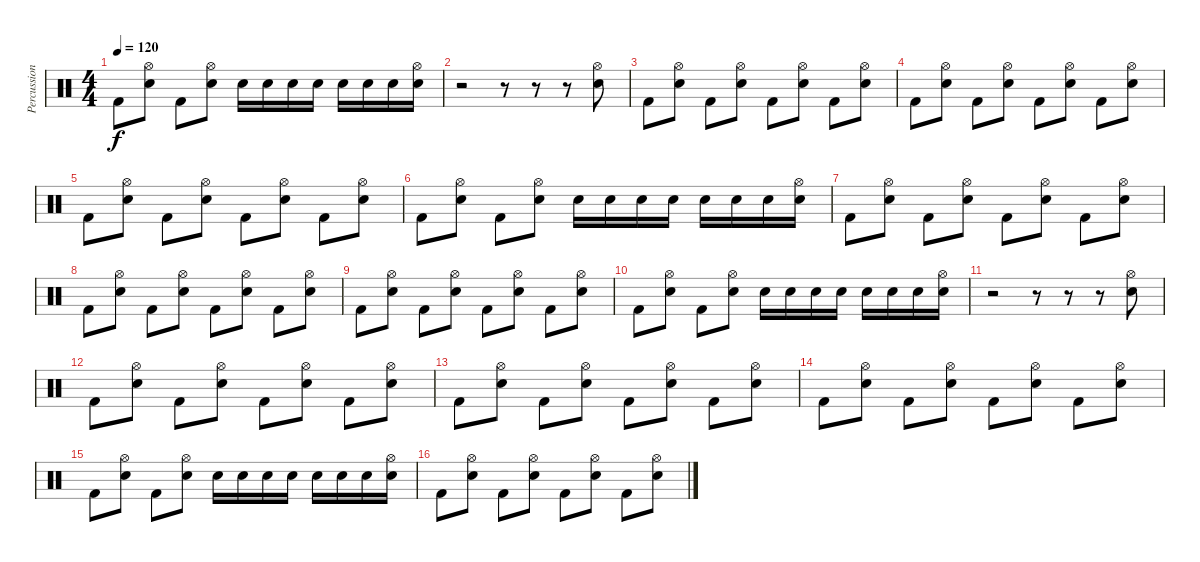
\track ("Percussion" "Percussion") {instrument percussion}
\staff {score}
\articulation defaults
\ts (4 4)
\tempo 120
\clef neutral
\ks c "Kick (hit) 2".8{dy f}
("Electric Snare (hit)" "Hi-Hat (open)").8 "Kick (hit) 2".8 ("Electric Snare (hit)" "Hi-Hat (open)").8 "Electric Snare (hit)".16 "Electric Snare (hit)".16 "Electric Snare (hit)".16 "Electric Snare (hit)".16 "Electric Snare (hit)".16 "Electric Snare (hit)".16 "Electric Snare (hit)".16 ("Electric Snare (hit)" "Hi-Hat (open)").16 |
r.2 r.8 r.8 r.8 ("Electric Snare (hit)" "Hi-Hat (open)").8 |
"Kick (hit) 2".8 ("Electric Snare (hit)" "Hi-Hat (open)").8 "Kick (hit) 2".8 ("Electric Snare (hit)" "Hi-Hat (open)").8 "Kick (hit) 2".8 ("Electric Snare (hit)" "Hi-Hat (open)").8 "Kick (hit) 2".8 ("Electric Snare (hit)" "Hi-Hat (open)").8 |
"Kick (hit) 2".8 ("Electric Snare (hit)" "Hi-Hat (open)").8 "Kick (hit) 2".8 ("Electric Snare (hit)" "Hi-Hat (open)").8 "Kick (hit) 2".8 ("Electric Snare (hit)" "Hi-Hat (open)").8 "Kick (hit) 2".8 ("Electric Snare (hit)" "Hi-Hat (open)").8 |
"Kick (hit) 2".8 ("Electric Snare (hit)" "Hi-Hat (open)").8 "Kick (hit) 2".8 ("Electric Snare (hit)" "Hi-Hat (open)").8 "Kick (hit) 2".8 ("Electric Snare (hit)" "Hi-Hat (open)").8 "Kick (hit) 2".8 ("Electric Snare (hit)" "Hi-Hat (open)").8 |
"Kick (hit) 2".8 ("Electric Snare (hit)" "Hi-Hat (open)").8 "Kick (hit) 2".8 ("Electric Snare (hit)" "Hi-Hat (open)").8 "Electric Snare (hit)".16 "Electric Snare (hit)".16 "Electric Snare (hit)".16 "Electric Snare (hit)".16 "Electric Snare (hit)".16 "Electric Snare (hit)".16 "Electric Snare (hit)".16 ("Electric Snare (hit)" "Hi-Hat (open)").16 |
"Kick (hit) 2".8 ("Electric Snare (hit)" "Hi-Hat (open)").8 "Kick (hit) 2".8 ("Electric Snare (hit)" "Hi-Hat (open)").8 "Kick (hit) 2".8 ("Electric Snare (hit)" "Hi-Hat (open)").8 "Kick (hit) 2".8 ("Electric Snare (hit)" "Hi-Hat (open)").8 |
"Kick (hit) 2".8 ("Electric Snare (hit)" "Hi-Hat (open)").8 "Kick (hit) 2".8 ("Electric Snare (hit)" "Hi-Hat (open)").8 "Kick (hit) 2".8 ("Electric Snare (hit)" "Hi-Hat (open)").8 "Kick (hit) 2".8 ("Electric Snare (hit)" "Hi-Hat (open)").8 |
"Kick (hit) 2".8 ("Electric Snare (hit)" "Hi-Hat (open)").8 "Kick (hit) 2".8 ("Electric Snare (hit)" "Hi-Hat (open)").8 "Kick (hit) 2".8 ("Electric Snare (hit)" "Hi-Hat (open)").8 "Kick (hit) 2".8 ("Electric Snare (hit)" "Hi-Hat (open)").8 |
"Kick (hit) 2".8 ("Electric Snare (hit)" "Hi-Hat (open)").8 "Kick (hit) 2".8 ("Electric Snare (hit)" "Hi-Hat (open)").8 "Electric Snare (hit)".16 "Electric Snare (hit)".16 "Electric Snare (hit)".16 "Electric Snare (hit)".16 "Electric Snare (hit)".16 "Electric Snare (hit)".16 "Electric Snare (hit)".16 ("Electric Snare (hit)" "Hi-Hat (open)").16 |
r.2 r.8 r.8 r.8 ("Electric Snare (hit)" "Hi-Hat (open)").8 |
"Kick (hit) 2".8 ("Electric Snare (hit)" "Hi-Hat (open)").8 "Kick (hit) 2".8 ("Electric Snare (hit)" "Hi-Hat (open)").8 "Kick (hit) 2".8 ("Electric Snare (hit)" "Hi-Hat (open)").8 "Kick (hit) 2".8 ("Electric Snare (hit)" "Hi-Hat (open)").8 |
"Kick (hit) 2".8 ("Electric Snare (hit)" "Hi-Hat (open)").8 "Kick (hit) 2".8 ("Electric Snare (hit)" "Hi-Hat (open)").8 "Kick (hit) 2".8 ("Electric Snare (hit)" "Hi-Hat (open)").8 "Kick (hit) 2".8 ("Electric Snare (hit)" "Hi-Hat (open)").8 |
"Kick (hit) 2".8 ("Electric Snare (hit)" "Hi-Hat (open)").8 "Kick (hit) 2".8 ("Electric Snare (hit)" "Hi-Hat (open)").8 "Kick (hit) 2".8 ("Electric Snare (hit)" "Hi-Hat (open)").8 "Kick (hit) 2".8 ("Electric Snare (hit)" "Hi-Hat (open)").8 |
"Kick (hit) 2".8 ("Electric Snare (hit)" "Hi-Hat (open)").8 "Kick (hit) 2".8 ("Electric Snare (hit)" "Hi-Hat (open)").8 "Electric Snare (hit)".16 "Electric Snare (hit)".16 "Electric Snare (hit)".16 "Electric Snare (hit)".16 "Electric Snare (hit)".16 "Electric Snare (hit)".16 "Electric Snare (hit)".16 ("Electric Snare (hit)" "Hi-Hat (open)").16 |
"Kick (hit) 2".8 ("Electric Snare (hit)" "Hi-Hat (open)").8 "Kick (hit) 2".8 ("Electric Snare (hit)" "Hi-Hat (open)").8 "Kick (hit) 2".8 ("Electric Snare (hit)" "Hi-Hat (open)").8 "Kick (hit) 2".8 ("Electric Snare (hit)" "Hi-Hat (open)").8
